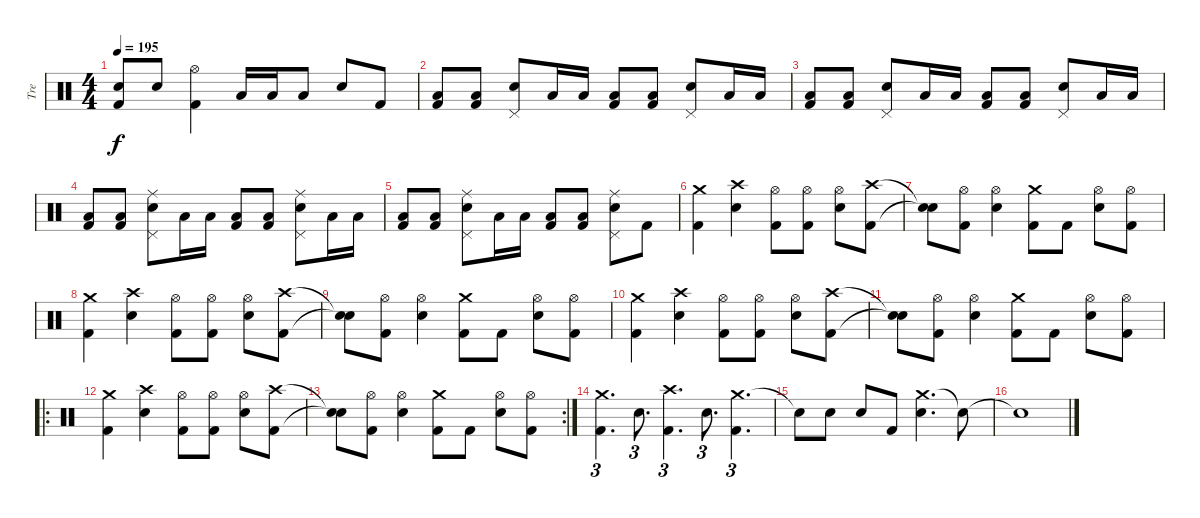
\track ("Tre" "Tre") {instrument percussion}
\staff {score}
\articulation defaults
\ts (4 4)
\tempo 195
\clef neutral
\ks c
("Electric Snare (hit)" "Kick (hit) 2").8{dy f} "Electric Snare (hit)".8 ("Hi-Hat (open)" "Kick (hit) 2").4 "Low Tom (hit)".16 "Low Tom (hit)".16 "Low Tom (hit)".8 "Electric Snare (hit)".8 "Kick (hit) 2".8 |
("Low Floor Tom (hit)" "Kick (hit) 2").8 ("Low Floor Tom (hit)" "Kick (hit) 2").8 ("Pedal Hi-Hat (hit)" "Electric Snare (hit)").8 "Low Floor Tom (hit)".16 "Low Floor Tom (hit)".16 ("Low Floor Tom (hit)" "Kick (hit) 2").8 ("Low Floor Tom (hit)" "Kick (hit) 2").8 ("Pedal Hi-Hat (hit)" "Electric Snare (hit)").8 "Low Floor Tom (hit)".16 "Low Floor Tom (hit)".16 |
("Low Floor Tom (hit)" "Kick (hit) 2").8 ("Low Floor Tom (hit)" "Kick (hit) 2").8 ("Pedal Hi-Hat (hit)" "Electric Snare (hit)").8 "Low Floor Tom (hit)".16 "Low Floor Tom (hit)".16 ("Low Floor Tom (hit)" "Kick (hit) 2").8 ("Low Floor Tom (hit)" "Kick (hit) 2").8 ("Pedal Hi-Hat (hit)" "Electric Snare (hit)").8 "Low Floor Tom (hit)".16 "Low Floor Tom (hit)".16 |
("Low Floor Tom (hit)" "Kick (hit) 2").8 ("Low Floor Tom (hit)" "Kick (hit) 2").8 ("Ride (middle)" "Pedal Hi-Hat (hit)" "Electric Snare (hit)").8 "Low Floor Tom (hit)".16 "Low Floor Tom (hit)".16 ("Low Floor Tom (hit)" "Kick (hit) 2").8 ("Low Floor Tom (hit)" "Kick (hit) 2").8 ("Ride (middle)" "Pedal Hi-Hat (hit)" "Electric Snare (hit)").8 "Low Floor Tom (hit)".16 "Low Floor Tom (hit)".16 |
("Low Floor Tom (hit)" "Kick (hit) 2").8 ("Low Floor Tom (hit)" "Kick (hit) 2").8 ("Ride (middle)" "Pedal Hi-Hat (hit)" "Electric Snare (hit)").8 "Low Floor Tom (hit)".16 "Low Floor Tom (hit)".16 ("Low Floor Tom (hit)" "Kick (hit) 2").8 ("Low Floor Tom (hit)" "Kick (hit) 2").8 ("Ride (middle)" "Pedal Hi-Hat (hit)" "Electric Snare (hit)").8 "Kick (hit) 2".8 |
("Crash medium (hit)" "Kick (hit) 2").4 ("Crash high (hit)" "Electric Snare (hit)").4 ("Hi-Hat (open)" "Kick (hit) 2").8 ("Hi-Hat (open)" "Kick (hit) 2").8 ("Hi-Hat (open)" "Electric Snare (hit)").8 ("Crash high (hit)" "Kick (hit) 2").8 |
("Snare (hit)"{t} "Snare (hit)"{t}).8 ("Hi-Hat (open)" "Kick (hit) 2").8 ("Hi-Hat (open)" "Electric Snare (hit)").4 ("Crash medium (hit)" "Kick (hit) 2").8 "Kick (hit) 2".8 ("Hi-Hat (open)" "Electric Snare (hit)").8 ("Hi-Hat (open)" "Kick (hit) 2").8 |
("Crash medium (hit)" "Kick (hit) 2").4 ("Crash high (hit)" "Electric Snare (hit)").4 ("Hi-Hat (open)" "Kick (hit) 2").8 ("Hi-Hat (open)" "Kick (hit) 2").8 ("Hi-Hat (open)" "Electric Snare (hit)").8 ("Crash high (hit)" "Kick (hit) 2").8 |
("Snare (hit)"{t} "Snare (hit)"{t}).8 ("Hi-Hat (open)" "Kick (hit) 2").8 ("Hi-Hat (open)" "Electric Snare (hit)").4 ("Crash medium (hit)" "Kick (hit) 2").8 "Kick (hit) 2".8 ("Hi-Hat (open)" "Electric Snare (hit)").8 ("Hi-Hat (open)" "Kick (hit) 2").8 |
("Crash medium (hit)" "Kick (hit) 2").4 ("Crash high (hit)" "Electric Snare (hit)").4 ("Hi-Hat (open)" "Kick (hit) 2").8 ("Hi-Hat (open)" "Kick (hit) 2").8 ("Hi-Hat (open)" "Electric Snare (hit)").8 ("Crash high (hit)" "Kick (hit) 2").8 |
("Snare (hit)"{t} "Snare (hit)"{t}).8 ("Hi-Hat (open)" "Kick (hit) 2").8 ("Hi-Hat (open)" "Electric Snare (hit)").4 ("Crash medium (hit)" "Kick (hit) 2").8 "Kick (hit) 2".8 ("Hi-Hat (open)" "Electric Snare (hit)").8 ("Hi-Hat (open)" "Kick (hit) 2").8 |
\ro
("Crash medium (hit)" "Kick (hit) 2").4 ("Crash high (hit)" "Electric Snare (hit)").4 ("Hi-Hat (open)" "Kick (hit) 2").8 ("Hi-Hat (open)" "Kick (hit) 2").8 ("Hi-Hat (open)" "Electric Snare (hit)").8 ("Crash high (hit)" "Kick (hit) 2").8 |
\rc 2
("Snare (hit)"{t} "Snare (hit)"{t}).8 ("Hi-Hat (open)" "Kick (hit) 2").8 ("Hi-Hat (open)" "Electric Snare (hit)").4 ("Crash medium (hit)" "Kick (hit) 2").8 "Kick (hit) 2".8 ("Hi-Hat (open)" "Electric Snare (hit)").8 ("Hi-Hat (open)" "Kick (hit) 2").8 |
("Crash medium (hit)" "Kick (hit) 2").4{d tu (3 2)} "Electric Snare (hit)".8{d tu (3 2)} ("Crash high (hit)" "Kick (hit) 2").4{d tu (3 2)} "Electric Snare (hit)".8{d tu (3 2)} ("Crash medium (hit)" "Kick (hit) 2").4{d tu (3 2)} |
"Snare (hit)"{t}.8 "Electric Snare (hit)".8 "Electric Snare (hit)".8 "Kick (hit) 2".8 ("Crash medium (hit)" "Electric Snare (hit)").4{d} "Snare (hit)"{t}.8 |
"Snare (hit)"{t}.1
